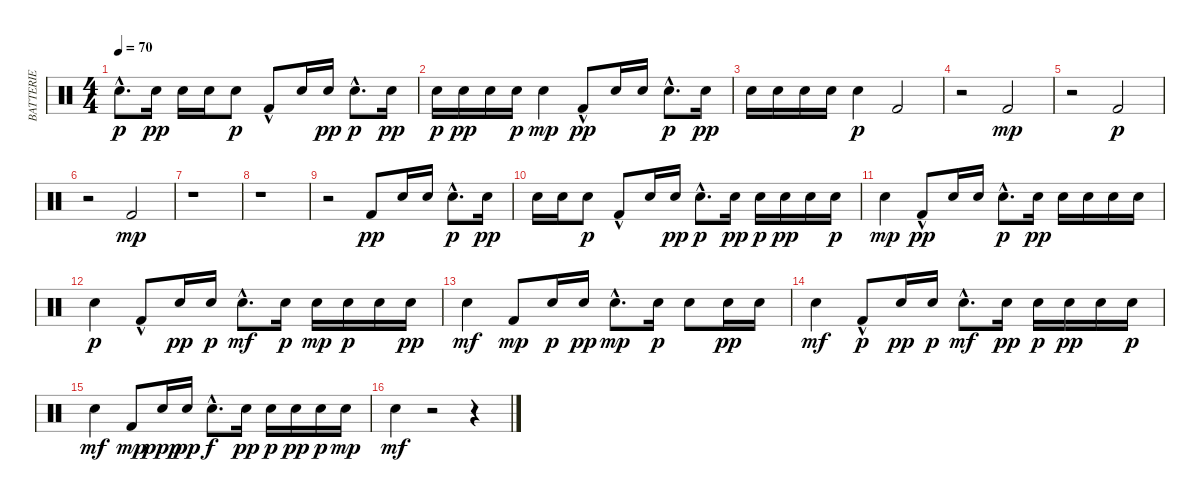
\track ("BATTERIE" "BATTERIE") {instrument percussion}
\staff {score}
\articulation defaults
\ts (4 4)
\tempo 70
\clef neutral
\ks c "Snare (hit) 2"{hac}.8{d dy p} "Snare (hit) 2".16{dy pp} "Snare (hit) 2".16 "Snare (hit) 2".16 "Snare (hit) 2".8{dy p} "Kick (hit) 2"{hac}.8 "Snare (hit) 2".16 "Snare (hit) 2".16{dy pp} "Snare (hit) 2"{hac}.8{d dy p} "Snare (hit) 2".16{dy pp}
|
"Snare (hit) 2".16{dy p} "Snare (hit) 2".16{dy pp} "Snare (hit) 2".16 "Snare (hit) 2".16{dy p} "Snare (hit) 2".4{dy mp} "Kick (hit) 2"{hac}.8{dy pp} "Snare (hit) 2".16 "Snare (hit) 2".16 "Snare (hit) 2"{hac}.8{d dy p} "Snare (hit) 2".16{dy pp} |
"Snare (hit) 2".16 "Snare (hit) 2".16 "Snare (hit) 2".16 "Snare (hit) 2".16 "Snare (hit) 2".4{dy p} "Kick (hit) 2".2 |
r.2 "Kick (hit) 2".2{dy mp} |
r.2 "Kick (hit) 2".2{dy p} |
r.2 "Kick (hit) 2".2{dy mp} |
r.1 |
r.1 |
r.2 "Kick (hit) 2".8{dy pp} "Snare (hit) 2".16 "Snare (hit) 2".16 "Snare (hit) 2"{hac}.8{d dy p} "Snare (hit) 2".16{dy pp} |
"Snare (hit) 2".16 "Snare (hit) 2".16 "Snare (hit) 2".8{dy p} "Kick (hit) 2"{hac}.8 "Snare (hit) 2".16 "Snare (hit) 2".16{dy pp} "Snare (hit) 2"{hac}.8{d dy p} "Snare (hit) 2".16{dy pp} "Snare (hit) 2".16{dy p} "Snare (hit) 2".16{dy pp} "Snare (hit) 2".16 "Snare (hit) 2".16{dy p} |
"Snare (hit) 2".4{dy mp} "Kick (hit) 2"{hac}.8{dy pp} "Snare (hit) 2".16 "Snare (hit) 2".16 "Snare (hit) 2"{hac}.8{d dy p} "Snare (hit) 2".16{dy pp} "Snare (hit) 2".16 "Snare (hit) 2".16 "Snare (hit) 2".16 "Snare (hit) 2".16 |
"Snare (hit) 2".4{dy p} "Kick (hit) 2"{hac}.8 "Snare (hit) 2".16{dy pp} "Snare (hit) 2".16{dy p} "Snare (hit) 2"{hac}.8{d dy mf} "Snare (hit) 2".16{dy p} "Snare (hit) 2".16{dy mp} "Snare (hit) 2".16{dy p} "Snare (hit) 2".16 "Snare (hit) 2".16{dy pp} |
"Snare (hit) 2".4{dy mf} "Kick (hit) 2".8{dy mp} "Snare (hit) 2".16{dy p} "Snare (hit) 2".16{dy pp} "Snare (hit) 2"{hac}.8{d dy mp} "Snare (hit) 2".16{dy p} "Snare (hit) 2".8 "Snare (hit) 2".16{dy pp} "Snare (hit) 2".16 |
"Snare (hit) 2".4{dy mf} "Kick (hit) 2"{hac}.8{dy p} "Snare (hit) 2".16{dy pp} "Snare (hit) 2".16{dy p} "Snare (hit) 2"{hac}.8{d dy mf} "Snare (hit) 2".16{dy pp} "Snare (hit) 2".16{dy p} "Snare (hit) 2".16{dy pp} "Snare (hit) 2".16 "Snare (hit) 2".16{dy p} |
"Snare (hit) 2".4{dy mf} "Kick (hit) 2".8{dy mp} "Snare (hit) 2".16{dy ppp} "Snare (hit) 2".16{dy pp} "Snare (hit) 2"{hac}.8{d dy f} "Snare (hit) 2".16{dy pp} "Snare (hit) 2".16{dy p} "Snare (hit) 2".16{dy pp} "Snare (hit) 2".16{dy p} "Snare (hit) 2".16{dy mp} |
"Snare (hit) 2".4{dy mf} r.2 r.4
